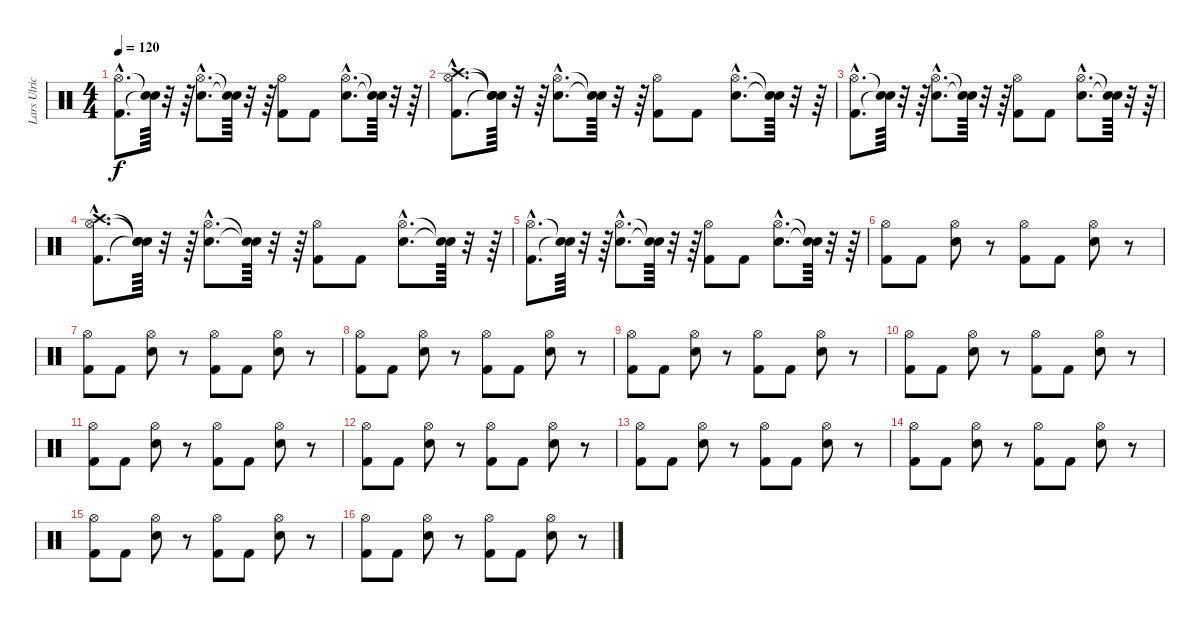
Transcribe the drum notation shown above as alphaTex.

\track ("Lars Ulrich" "Lars Ulric") {instrument percussion}
\staff {score}
\articulation defaults
\ts (4 4)
\tempo 120
\clef neutral
\ks c
("Kick (hit) 2"{hac} "Hi-Hat (open)"{hac}).8{d dy f} ("Snare (hit)"{t} "Snare (hit)"{t}).64 r.32 r.64 ("Snare (hit) 2"{hac} "Hi-Hat (open)"{hac}).8{d} ("Snare (hit)"{t} "Snare (hit)"{t}).64 r.32 r.64 ("Kick (hit) 2" "Hi-Hat (open)").8 "Kick (hit) 2".8 ("Snare (hit) 2"{hac} "Hi-Hat (open)"{hac}).8{d} ("Snare (hit)"{t} "Snare (hit)"{t}).64 r.32 r.64 |
("Kick (hit) 2"{hac} "Hi-Hat (open)"{hac} "Crash high (hit)"{hac}).8{d} ("Snare (hit)"{t} "Snare (hit)"{t} "Snare (hit)"{t}).64 r.32 r.64 ("Snare (hit) 2"{hac} "Hi-Hat (open)"{hac}).8{d} ("Snare (hit)"{t} "Snare (hit)"{t}).64 r.32 r.64 ("Kick (hit) 2" "Hi-Hat (open)").8 "Kick (hit) 2".8 ("Snare (hit) 2"{hac} "Hi-Hat (open)"{hac}).8{d} ("Snare (hit)"{t} "Snare (hit)"{t}).64 r.32 r.64 |
("Kick (hit) 2"{hac} "Hi-Hat (open)"{hac}).8{d} ("Snare (hit)"{t} "Snare (hit)"{t}).64 r.32 r.64 ("Snare (hit) 2"{hac} "Hi-Hat (open)"{hac}).8{d} ("Snare (hit)"{t} "Snare (hit)"{t}).64 r.32 r.64 ("Kick (hit) 2" "Hi-Hat (open)").8 "Kick (hit) 2".8 ("Snare (hit) 2"{hac} "Hi-Hat (open)"{hac}).8{d} ("Snare (hit)"{t} "Snare (hit)"{t}).64 r.32 r.64 |
("Kick (hit) 2"{hac} "Hi-Hat (open)"{hac} "Crash high (hit)"{hac}).8{d} ("Snare (hit)"{t} "Snare (hit)"{t} "Snare (hit)"{t}).64 r.32 r.64 ("Snare (hit) 2"{hac} "Hi-Hat (open)"{hac}).8{d} ("Snare (hit)"{t} "Snare (hit)"{t}).64 r.32 r.64 ("Kick (hit) 2" "Hi-Hat (open)").8 "Kick (hit) 2".8 ("Snare (hit) 2"{hac} "Hi-Hat (open)"{hac}).8{d} ("Snare (hit)"{t} "Snare (hit)"{t}).64 r.32 r.64 |
("Kick (hit) 2"{hac} "Hi-Hat (open)"{hac}).8{d} ("Snare (hit)"{t} "Snare (hit)"{t}).64 r.32 r.64 ("Snare (hit) 2"{hac} "Hi-Hat (open)"{hac}).8{d} ("Snare (hit)"{t} "Snare (hit)"{t}).64 r.32 r.64 ("Kick (hit) 2" "Hi-Hat (open)").8 "Kick (hit) 2".8 ("Snare (hit) 2"{hac} "Hi-Hat (open)"{hac}).8{d} ("Snare (hit)"{t} "Snare (hit)"{t}).64 r.32 r.64 |
("Kick (hit) 2" "Hi-Hat (open)").8 "Kick (hit) 2".8 ("Snare (hit) 2" "Hi-Hat (open)").8 r.8 ("Kick (hit) 2" "Hi-Hat (open)").8 "Kick (hit) 2".8 ("Snare (hit) 2" "Hi-Hat (open)").8 r.8 |
("Kick (hit) 2" "Hi-Hat (open)").8 "Kick (hit) 2".8 ("Snare (hit) 2" "Hi-Hat (open)").8 r.8 ("Kick (hit) 2" "Hi-Hat (open)").8 "Kick (hit) 2".8 ("Snare (hit) 2" "Hi-Hat (open)").8 r.8 |
("Kick (hit) 2" "Hi-Hat (open)").8 "Kick (hit) 2".8 ("Snare (hit) 2" "Hi-Hat (open)").8 r.8 ("Kick (hit) 2" "Hi-Hat (open)").8 "Kick (hit) 2".8 ("Snare (hit) 2" "Hi-Hat (open)").8 r.8 |
("Kick (hit) 2" "Hi-Hat (open)").8 "Kick (hit) 2".8 ("Snare (hit) 2" "Hi-Hat (open)").8 r.8 ("Kick (hit) 2" "Hi-Hat (open)").8 "Kick (hit) 2".8 ("Snare (hit) 2" "Hi-Hat (open)").8 r.8 |
("Kick (hit) 2" "Hi-Hat (open)").8 "Kick (hit) 2".8 ("Snare (hit) 2" "Hi-Hat (open)").8 r.8 ("Kick (hit) 2" "Hi-Hat (open)").8 "Kick (hit) 2".8 ("Snare (hit) 2" "Hi-Hat (open)").8 r.8 |
("Kick (hit) 2" "Hi-Hat (open)").8 "Kick (hit) 2".8 ("Snare (hit) 2" "Hi-Hat (open)").8 r.8 ("Kick (hit) 2" "Hi-Hat (open)").8 "Kick (hit) 2".8 ("Snare (hit) 2" "Hi-Hat (open)").8 r.8 |
("Kick (hit) 2" "Hi-Hat (open)").8 "Kick (hit) 2".8 ("Snare (hit) 2" "Hi-Hat (open)").8 r.8 ("Kick (hit) 2" "Hi-Hat (open)").8 "Kick (hit) 2".8 ("Snare (hit) 2" "Hi-Hat (open)").8 r.8 |
("Kick (hit) 2" "Hi-Hat (open)").8 "Kick (hit) 2".8 ("Snare (hit) 2" "Hi-Hat (open)").8 r.8 ("Kick (hit) 2" "Hi-Hat (open)").8 "Kick (hit) 2".8 ("Snare (hit) 2" "Hi-Hat (open)").8 r.8 |
("Kick (hit) 2" "Hi-Hat (open)").8 "Kick (hit) 2".8 ("Snare (hit) 2" "Hi-Hat (open)").8 r.8 ("Kick (hit) 2" "Hi-Hat (open)").8 "Kick (hit) 2".8 ("Snare (hit) 2" "Hi-Hat (open)").8 r.8 |
("Kick (hit) 2" "Hi-Hat (open)").8 "Kick (hit) 2".8 ("Snare (hit) 2" "Hi-Hat (open)").8 r.8 ("Kick (hit) 2" "Hi-Hat (open)").8 "Kick (hit) 2".8 ("Snare (hit) 2" "Hi-Hat (open)").8 r.8 |
("Kick (hit) 2" "Hi-Hat (open)").8 "Kick (hit) 2".8 ("Snare (hit) 2" "Hi-Hat (open)").8 r.8 ("Kick (hit) 2" "Hi-Hat (open)").8 "Kick (hit) 2".8 ("Snare (hit) 2" "Hi-Hat (open)").8 r.8
